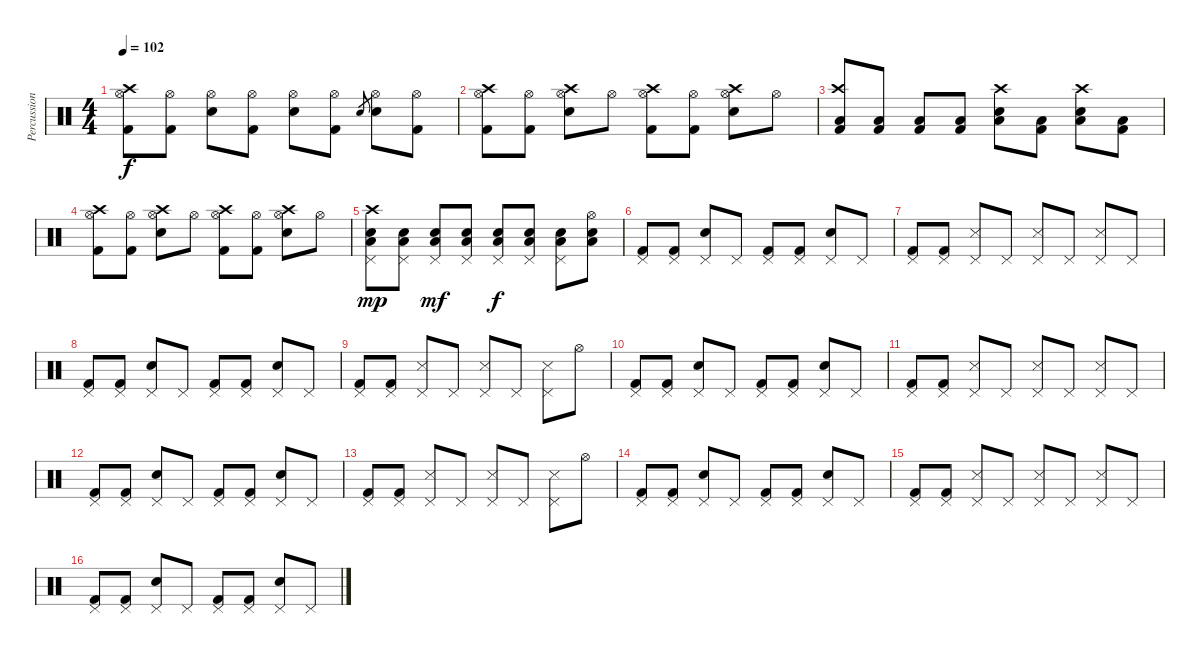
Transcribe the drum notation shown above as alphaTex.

\track ("Percussion" "Percussion") {instrument percussion}
\staff {score}
\articulation defaults
\ts (4 4)
\tempo 102
\clef neutral
\ks c
("Kick (hit) 2" "Hi-Hat (open)" "Crash high (hit)").8{dy f} ("Kick (hit) 2" "Hi-Hat (open)").8 ("Snare (hit) 2" "Hi-Hat (open)").8 ("Kick (hit) 2" "Hi-Hat (open)").8 ("Snare (hit) 2" "Hi-Hat (open)").8 ("Kick (hit) 2" "Hi-Hat (open)").8 "Snare (hit) 2".8{gr} ("Snare (hit) 2" "Hi-Hat (open)").8 ("Kick (hit) 2" "Hi-Hat (open)").8 |
("Kick (hit) 2" "Hi-Hat (open)" "Crash high (hit)").8 ("Kick (hit) 2" "Hi-Hat (open)").8 ("Snare (hit) 2" "Hi-Hat (open)" "Crash high (hit)").8 "Hi-Hat (open)".8 ("Kick (hit) 2" "Hi-Hat (open)" "Crash high (hit)").8 ("Kick (hit) 2" "Hi-Hat (open)").8 ("Snare (hit) 2" "Hi-Hat (open)" "Crash high (hit)").8 "Hi-Hat (open)".8 |
("Kick (hit) 2" "Low Tom (hit)" "Crash high (hit)").8 ("Kick (hit) 2" "Low Tom (hit)").8 ("Kick (hit) 2" "Low Tom (hit)").8 ("Kick (hit) 2" "Low Tom (hit)").8 ("Snare (hit) 2" "Low Tom (hit)" "Crash high (hit)").8 ("Kick (hit) 2" "Low Tom (hit)").8 ("Snare (hit) 2" "Low Tom (hit)" "Crash high (hit)").8 ("Kick (hit) 2" "Low Tom (hit)").8 |
("Kick (hit) 2" "Hi-Hat (open)" "Crash high (hit)").8 ("Kick (hit) 2" "Hi-Hat (open)").8 ("Snare (hit) 2" "Hi-Hat (open)" "Crash high (hit)").8 "Hi-Hat (open)".8 ("Kick (hit) 2" "Hi-Hat (open)" "Crash high (hit)").8 ("Kick (hit) 2" "Hi-Hat (open)").8 ("Snare (hit) 2" "Hi-Hat (open)" "Crash high (hit)").8 "Hi-Hat (open)".8 |
("Snare (hit) 2" "Low Tom (hit)" "Crash high (hit)" "Pedal Hi-Hat (hit)").8{dy mp} ("Snare (hit) 2" "Low Tom (hit)" "Pedal Hi-Hat (hit)").8 ("Snare (hit) 2" "Low Tom (hit)" "Pedal Hi-Hat (hit)").8{dy mf} ("Snare (hit) 2" "Low Tom (hit)" "Pedal Hi-Hat (hit)").8 ("Snare (hit) 2" "Low Tom (hit)" "Pedal Hi-Hat (hit)").8{dy f} ("Snare (hit) 2" "Low Tom (hit)" "Pedal Hi-Hat (hit)").8 ("Snare (hit) 2" "Low Tom (hit)" "Pedal Hi-Hat (hit)").8 ("Snare (hit) 2" "Low Tom (hit)" "Hi-Hat (open)").8 |
("Kick (hit) 2" "Pedal Hi-Hat (hit)").8 ("Kick (hit) 2" "Pedal Hi-Hat (hit)").8 ("Snare (hit) 2" "Pedal Hi-Hat (hit)").8 "Pedal Hi-Hat (hit)".8 ("Kick (hit) 2" "Pedal Hi-Hat (hit)").8 ("Kick (hit) 2" "Pedal Hi-Hat (hit)").8 ("Snare (hit) 2" "Pedal Hi-Hat (hit)").8 "Pedal Hi-Hat (hit)".8 |
("Kick (hit) 2" "Pedal Hi-Hat (hit)").8 ("Kick (hit) 2" "Pedal Hi-Hat (hit)").8 ("Metronome (hit)" "Pedal Hi-Hat (hit)").8 "Pedal Hi-Hat (hit)".8 ("Metronome (hit)" "Pedal Hi-Hat (hit)").8 "Pedal Hi-Hat (hit)".8 ("Metronome (hit)" "Pedal Hi-Hat (hit)").8 "Pedal Hi-Hat (hit)".8 |
("Kick (hit) 2" "Pedal Hi-Hat (hit)").8 ("Kick (hit) 2" "Pedal Hi-Hat (hit)").8 ("Snare (hit) 2" "Pedal Hi-Hat (hit)").8 "Pedal Hi-Hat (hit)".8 ("Kick (hit) 2" "Pedal Hi-Hat (hit)").8 ("Kick (hit) 2" "Pedal Hi-Hat (hit)").8 ("Snare (hit) 2" "Pedal Hi-Hat (hit)").8 "Pedal Hi-Hat (hit)".8 |
("Kick (hit) 2" "Pedal Hi-Hat (hit)").8 ("Kick (hit) 2" "Pedal Hi-Hat (hit)").8 ("Metronome (hit)" "Pedal Hi-Hat (hit)").8 "Pedal Hi-Hat (hit)".8 ("Metronome (hit)" "Pedal Hi-Hat (hit)").8 "Pedal Hi-Hat (hit)".8 ("Metronome (hit)" "Pedal Hi-Hat (hit)").8 "Hi-Hat (open)".8 |
("Kick (hit) 2" "Pedal Hi-Hat (hit)").8 ("Kick (hit) 2" "Pedal Hi-Hat (hit)").8 ("Snare (hit) 2" "Pedal Hi-Hat (hit)").8 "Pedal Hi-Hat (hit)".8 ("Kick (hit) 2" "Pedal Hi-Hat (hit)").8 ("Kick (hit) 2" "Pedal Hi-Hat (hit)").8 ("Snare (hit) 2" "Pedal Hi-Hat (hit)").8 "Pedal Hi-Hat (hit)".8 |
("Kick (hit) 2" "Pedal Hi-Hat (hit)").8 ("Kick (hit) 2" "Pedal Hi-Hat (hit)").8 ("Metronome (hit)" "Pedal Hi-Hat (hit)").8 "Pedal Hi-Hat (hit)".8 ("Metronome (hit)" "Pedal Hi-Hat (hit)").8 "Pedal Hi-Hat (hit)".8 ("Metronome (hit)" "Pedal Hi-Hat (hit)").8 "Pedal Hi-Hat (hit)".8 |
("Kick (hit) 2" "Pedal Hi-Hat (hit)").8 ("Kick (hit) 2" "Pedal Hi-Hat (hit)").8 ("Snare (hit) 2" "Pedal Hi-Hat (hit)").8 "Pedal Hi-Hat (hit)".8 ("Kick (hit) 2" "Pedal Hi-Hat (hit)").8 ("Kick (hit) 2" "Pedal Hi-Hat (hit)").8 ("Snare (hit) 2" "Pedal Hi-Hat (hit)").8 "Pedal Hi-Hat (hit)".8 |
("Kick (hit) 2" "Pedal Hi-Hat (hit)").8 ("Kick (hit) 2" "Pedal Hi-Hat (hit)").8 ("Metronome (hit)" "Pedal Hi-Hat (hit)").8 "Pedal Hi-Hat (hit)".8 ("Metronome (hit)" "Pedal Hi-Hat (hit)").8 "Pedal Hi-Hat (hit)".8 ("Metronome (hit)" "Pedal Hi-Hat (hit)").8 "Hi-Hat (open)".8 |
("Kick (hit) 2" "Pedal Hi-Hat (hit)").8 ("Kick (hit) 2" "Pedal Hi-Hat (hit)").8 ("Snare (hit) 2" "Pedal Hi-Hat (hit)").8 "Pedal Hi-Hat (hit)".8 ("Kick (hit) 2" "Pedal Hi-Hat (hit)").8 ("Kick (hit) 2" "Pedal Hi-Hat (hit)").8 ("Snare (hit) 2" "Pedal Hi-Hat (hit)").8 "Pedal Hi-Hat (hit)".8 |
("Kick (hit) 2" "Pedal Hi-Hat (hit)").8 ("Kick (hit) 2" "Pedal Hi-Hat (hit)").8 ("Metronome (hit)" "Pedal Hi-Hat (hit)").8 "Pedal Hi-Hat (hit)".8 ("Metronome (hit)" "Pedal Hi-Hat (hit)").8 "Pedal Hi-Hat (hit)".8 ("Metronome (hit)" "Pedal Hi-Hat (hit)").8 "Pedal Hi-Hat (hit)".8 |
("Kick (hit) 2" "Pedal Hi-Hat (hit)").8 ("Kick (hit) 2" "Pedal Hi-Hat (hit)").8 ("Snare (hit) 2" "Pedal Hi-Hat (hit)").8 "Pedal Hi-Hat (hit)".8 ("Kick (hit) 2" "Pedal Hi-Hat (hit)").8 ("Kick (hit) 2" "Pedal Hi-Hat (hit)").8 ("Snare (hit) 2" "Pedal Hi-Hat (hit)").8 "Pedal Hi-Hat (hit)".8
